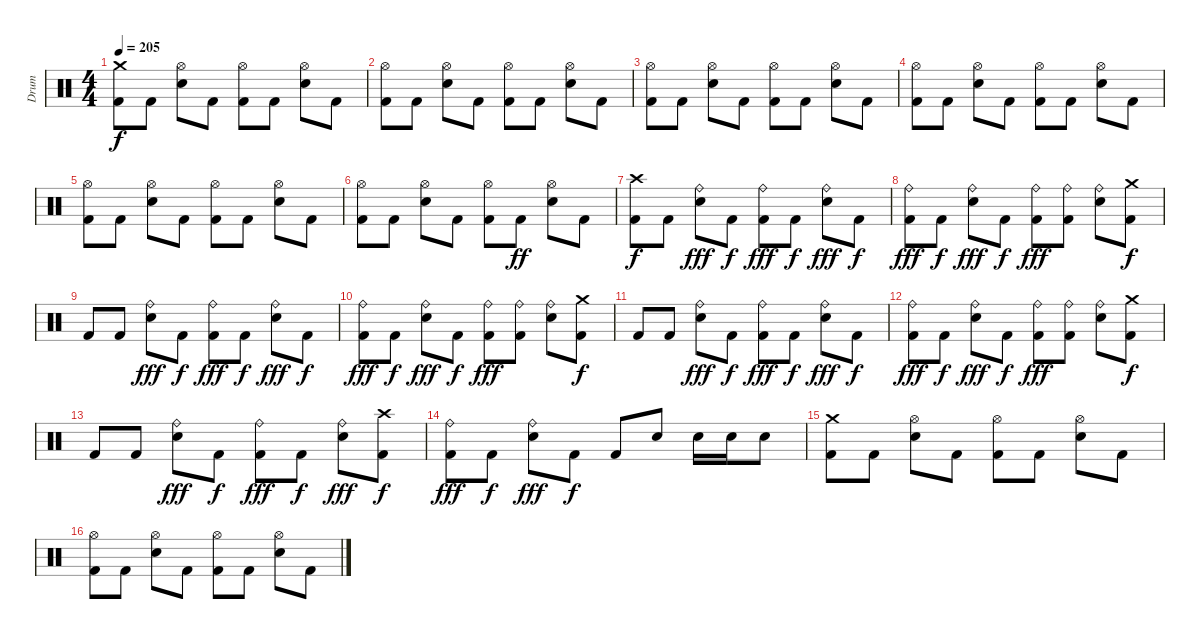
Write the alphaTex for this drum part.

\track ("Drum" "Drum") {instrument percussion}
\staff {score}
\articulation defaults
\ts (4 4)
\tempo 205
\clef neutral
\ks c
("Kick (hit) 2" "Crash medium (hit)").8{dy f} "Kick (hit) 2".8 ("Electric Snare (hit)" "Hi-Hat (open)").8 "Kick (hit) 2".8 ("Kick (hit) 2" "Hi-Hat (open)").8 "Kick (hit) 2".8 ("Electric Snare (hit)" "Hi-Hat (open)").8 "Kick (hit) 2".8 |
("Kick (hit) 2" "Hi-Hat (open)").8 "Kick (hit) 2".8 ("Electric Snare (hit)" "Hi-Hat (open)").8 "Kick (hit) 2".8 ("Kick (hit) 2" "Hi-Hat (open)").8 "Kick (hit) 2".8 ("Electric Snare (hit)" "Hi-Hat (open)").8 "Kick (hit) 2".8 |
("Kick (hit) 2" "Hi-Hat (open)").8 "Kick (hit) 2".8 ("Electric Snare (hit)" "Hi-Hat (open)").8 "Kick (hit) 2".8 ("Kick (hit) 2" "Hi-Hat (open)").8 "Kick (hit) 2".8 ("Electric Snare (hit)" "Hi-Hat (open)").8 "Kick (hit) 2".8 |
("Kick (hit) 2" "Hi-Hat (open)").8 "Kick (hit) 2".8 ("Electric Snare (hit)" "Hi-Hat (open)").8 "Kick (hit) 2".8 ("Kick (hit) 2" "Hi-Hat (open)").8 "Kick (hit) 2".8 ("Electric Snare (hit)" "Hi-Hat (open)").8 "Kick (hit) 2".8 |
("Kick (hit) 2" "Hi-Hat (open)").8 "Kick (hit) 2".8 ("Electric Snare (hit)" "Hi-Hat (open)").8 "Kick (hit) 2".8 ("Kick (hit) 2" "Hi-Hat (open)").8 "Kick (hit) 2".8 ("Electric Snare (hit)" "Hi-Hat (open)").8 "Kick (hit) 2".8 |
("Kick (hit) 2" "Hi-Hat (open)").8 "Kick (hit) 2".8 ("Electric Snare (hit)" "Hi-Hat (open)").8 "Kick (hit) 2".8 ("Kick (hit) 2" "Hi-Hat (open)").8 "Kick (hit) 2".8{dy ff} ("Electric Snare (hit)" "Hi-Hat (open)").8 "Kick (hit) 2".8 |
("Kick (hit) 2" "Crash high (hit)").8{dy f} "Kick (hit) 2".8 ("Electric Snare (hit)" "Ride (bell)").8{dy fff} "Kick (hit) 2".8{dy f} ("Kick (hit) 2" "Ride (bell)").8{dy fff} "Kick (hit) 2".8{dy f} ("Electric Snare (hit)" "Ride (bell)").8{dy fff} "Kick (hit) 2".8{dy f} |
("Kick (hit) 2" "Ride (bell)").8{dy fff} "Kick (hit) 2".8{dy f} ("Electric Snare (hit)" "Ride (bell)").8{dy fff} "Kick (hit) 2".8{dy f} ("Kick (hit) 2" "Ride (bell)").8{dy fff} ("Kick (hit) 2" "Ride (bell)").8 ("Electric Snare (hit)" "Ride (bell)").8 ("Kick (hit) 2" "Crash medium (hit)").8{dy f} |
"Kick (hit) 2".8 "Kick (hit) 2".8 ("Electric Snare (hit)" "Ride (bell)").8{dy fff} "Kick (hit) 2".8{dy f} ("Kick (hit) 2" "Ride (bell)").8{dy fff} "Kick (hit) 2".8{dy f} ("Electric Snare (hit)" "Ride (bell)").8{dy fff} "Kick (hit) 2".8{dy f} |
("Kick (hit) 2" "Ride (bell)").8{dy fff} "Kick (hit) 2".8{dy f} ("Electric Snare (hit)" "Ride (bell)").8{dy fff} "Kick (hit) 2".8{dy f} ("Kick (hit) 2" "Ride (bell)").8{dy fff} ("Kick (hit) 2" "Ride (bell)").8 ("Electric Snare (hit)" "Ride (bell)").8 ("Kick (hit) 2" "Crash medium (hit)").8{dy f} |
"Kick (hit) 2".8 "Kick (hit) 2".8 ("Electric Snare (hit)" "Ride (bell)").8{dy fff} "Kick (hit) 2".8{dy f} ("Kick (hit) 2" "Ride (bell)").8{dy fff} "Kick (hit) 2".8{dy f} ("Electric Snare (hit)" "Ride (bell)").8{dy fff} "Kick (hit) 2".8{dy f} |
("Kick (hit) 2" "Ride (bell)").8{dy fff} "Kick (hit) 2".8{dy f} ("Electric Snare (hit)" "Ride (bell)").8{dy fff} "Kick (hit) 2".8{dy f} ("Kick (hit) 2" "Ride (bell)").8{dy fff} ("Kick (hit) 2" "Ride (bell)").8 ("Electric Snare (hit)" "Ride (bell)").8 ("Kick (hit) 2" "Crash medium (hit)").8{dy f} |
"Kick (hit) 2".8 "Kick (hit) 2".8 ("Electric Snare (hit)" "Ride (bell)").8{dy fff} "Kick (hit) 2".8{dy f} ("Kick (hit) 2" "Ride (bell)").8{dy fff} "Kick (hit) 2".8{dy f} ("Electric Snare (hit)" "Ride (bell)").8{dy fff} ("Kick (hit) 2" "Crash high (hit)").8{dy f} |
("Kick (hit) 2" "Ride (bell)").8{dy fff} "Kick (hit) 2".8{dy f} ("Electric Snare (hit)" "Ride (bell)").8{dy fff} "Kick (hit) 2".8{dy f} "Kick (hit) 2".8 "Electric Snare (hit)".8 "Electric Snare (hit)".16 "Electric Snare (hit)".16 "Electric Snare (hit)".8 |
("Kick (hit) 2" "Crash medium (hit)").8 "Kick (hit) 2".8 ("Electric Snare (hit)" "Hi-Hat (open)").8 "Kick (hit) 2".8 ("Kick (hit) 2" "Hi-Hat (open)").8 "Kick (hit) 2".8 ("Electric Snare (hit)" "Hi-Hat (open)").8 "Kick (hit) 2".8 |
("Kick (hit) 2" "Hi-Hat (open)").8 "Kick (hit) 2".8 ("Electric Snare (hit)" "Hi-Hat (open)").8 "Kick (hit) 2".8 ("Kick (hit) 2" "Hi-Hat (open)").8 "Kick (hit) 2".8 ("Electric Snare (hit)" "Hi-Hat (open)").8 "Kick (hit) 2".8
